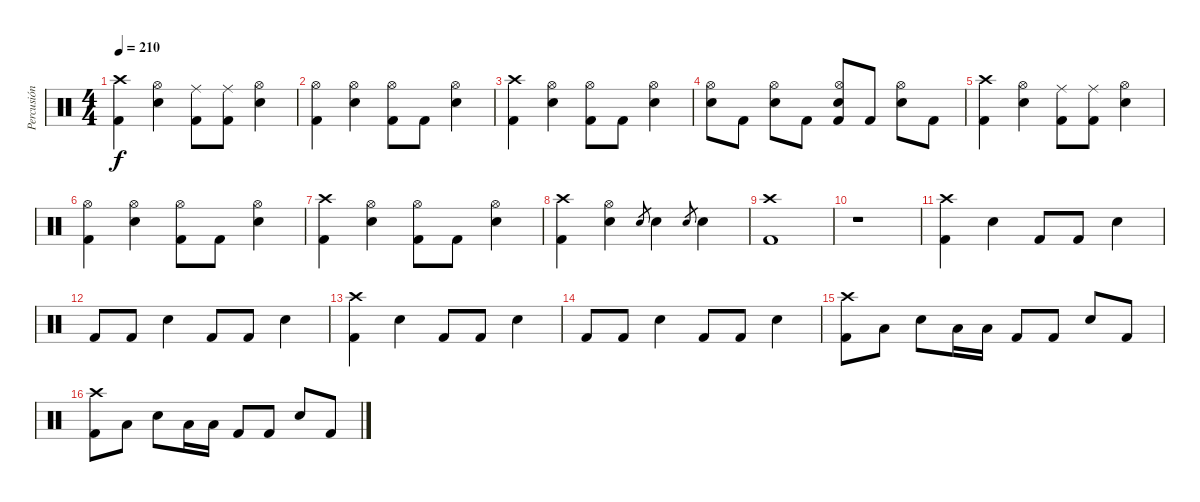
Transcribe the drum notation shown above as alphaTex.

\track ("Percusión" "Percusión") {instrument percussion}
\staff {score}
\articulation defaults
\ts (4 4)
\tempo 210
\clef neutral
\ks c
("Crash high (hit)" "Kick (hit) 2").4{dy f} ("Hi-Hat (open)" "Electric Snare (hit)").4 ("Ride (middle)" "Kick (hit) 2").8 ("Ride (middle)" "Kick (hit) 2").8 ("Hi-Hat (open)" "Electric Snare (hit)").4 |
("Hi-Hat (open)" "Kick (hit) 2").4 ("Hi-Hat (open)" "Electric Snare (hit)").4 ("Hi-Hat (open)" "Kick (hit) 2").8 "Kick (hit) 2".8 ("Hi-Hat (open)" "Electric Snare (hit)").4 |
("Crash high (hit)" "Kick (hit) 2").4 ("Hi-Hat (open)" "Electric Snare (hit)").4 ("Hi-Hat (open)" "Kick (hit) 2").8 "Kick (hit) 2".8 ("Hi-Hat (open)" "Electric Snare (hit)").4 |
("Hi-Hat (open)" "Electric Snare (hit)").8 "Kick (hit) 2".8 ("Hi-Hat (open)" "Electric Snare (hit)").8 "Kick (hit) 2".8 ("Hi-Hat (open)" "Electric Snare (hit)" "Kick (hit) 2").8 "Kick (hit) 2".8 ("Hi-Hat (open)" "Electric Snare (hit)").8 "Kick (hit) 2".8 |
("Crash high (hit)" "Kick (hit) 2").4 ("Hi-Hat (open)" "Electric Snare (hit)").4 ("Ride (middle)" "Kick (hit) 2").8 ("Ride (middle)" "Kick (hit) 2").8 ("Hi-Hat (open)" "Electric Snare (hit)").4 |
("Hi-Hat (open)" "Kick (hit) 2").4 ("Hi-Hat (open)" "Electric Snare (hit)").4 ("Hi-Hat (open)" "Kick (hit) 2").8 "Kick (hit) 2".8 ("Hi-Hat (open)" "Electric Snare (hit)").4 |
("Crash high (hit)" "Kick (hit) 2").4 ("Hi-Hat (open)" "Electric Snare (hit)").4 ("Hi-Hat (open)" "Kick (hit) 2").8 "Kick (hit) 2".8 ("Hi-Hat (open)" "Electric Snare (hit)").4 |
("Crash high (hit)" "Kick (hit) 2").4 ("Hi-Hat (open)" "Electric Snare (hit)").4 "Electric Snare (hit)".8{gr} "Electric Snare (hit)".4 "Electric Snare (hit)".8{gr} "Electric Snare (hit)".4 |
("Crash high (hit)" "Kick (hit) 2").1 |
r.1 |
("Crash high (hit)" "Kick (hit) 2").4 "Electric Snare (hit)".4 "Kick (hit) 2".8 "Kick (hit) 2".8 "Electric Snare (hit)".4 |
"Kick (hit) 2".8 "Kick (hit) 2".8 "Electric Snare (hit)".4 "Kick (hit) 2".8 "Kick (hit) 2".8 "Electric Snare (hit)".4 |
("Crash high (hit)" "Kick (hit) 2").4 "Electric Snare (hit)".4 "Kick (hit) 2".8 "Kick (hit) 2".8 "Electric Snare (hit)".4 |
"Kick (hit) 2".8 "Kick (hit) 2".8 "Electric Snare (hit)".4 "Kick (hit) 2".8 "Kick (hit) 2".8 "Electric Snare (hit)".4 |
("Crash high (hit)" "Kick (hit) 2").8 "Low Floor Tom (hit)".8 "Electric Snare (hit)".8 "Low Tom (hit)".16 "Low Tom (hit)".16 "Kick (hit) 2".8 "Kick (hit) 2".8 "Electric Snare (hit)".8 "Kick (hit) 2".8 |
("Crash high (hit)" "Kick (hit) 2").8 "Low Floor Tom (hit)".8 "Electric Snare (hit)".8 "Low Tom (hit)".16 "Low Tom (hit)".16 "Kick (hit) 2".8 "Kick (hit) 2".8 "Electric Snare (hit)".8 "Kick (hit) 2".8
